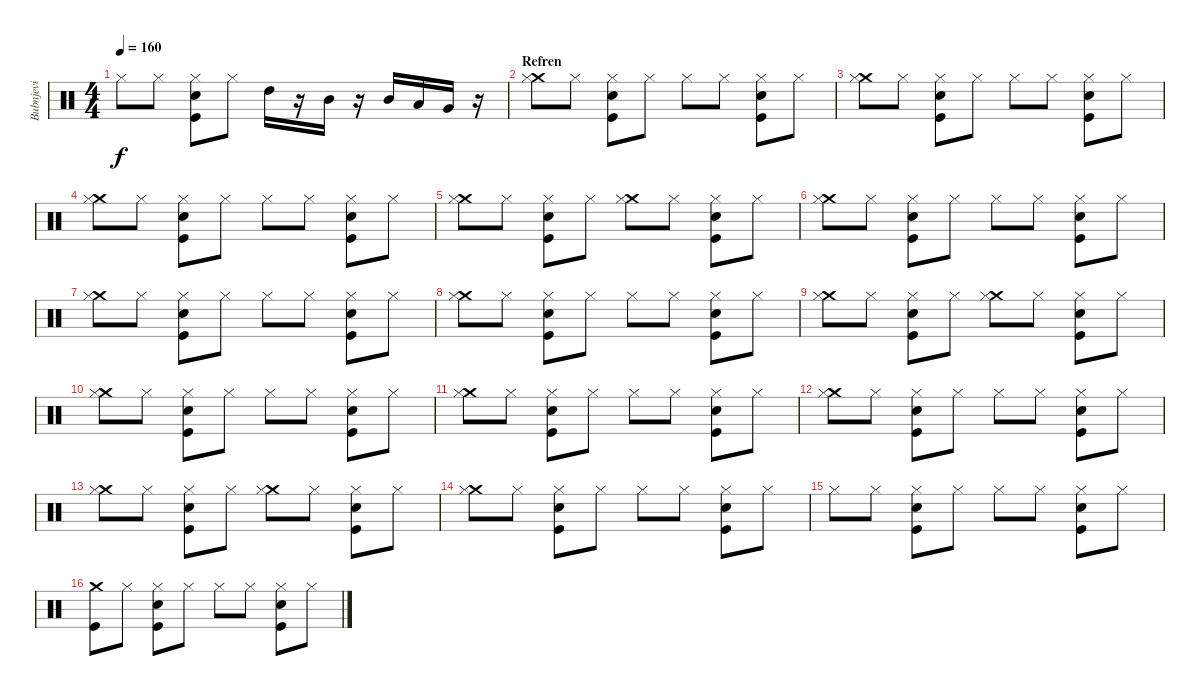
\track ("Bubnjevi" "Bubnjevi") {instrument percussion}
\staff {score}
\articulation defaults
\ts (4 4)
\tempo 160
\clef neutral
\ks c "Hi-Hat (closed)".8{dy f} "Hi-Hat (closed)".8
("Snare (hit) 2" "Hi-Hat (closed)" "Kick (hit)").8 "Hi-Hat (closed)".8 "High Tom (hit)".16 r.16 "Mid Tom (hit)".16 r.16 "Mid Tom (hit)".16 "Low Tom (hit)".16 "Very Low Tom (hit)".16 r.16 |
\section ("" "Refren")
("Crash medium (hit)" "Hi-Hat (closed)").8 "Hi-Hat (closed)".8 ("Snare (hit) 2" "Hi-Hat (closed)" "Kick (hit)").8 "Hi-Hat (closed)".8 "Hi-Hat (closed)".8 "Hi-Hat (closed)".8 ("Snare (hit) 2" "Hi-Hat (closed)" "Kick (hit)").8 "Hi-Hat (closed)".8 |
("Crash medium (hit)" "Hi-Hat (closed)").8 "Hi-Hat (closed)".8 ("Snare (hit) 2" "Hi-Hat (closed)" "Kick (hit)").8 "Hi-Hat (closed)".8 "Hi-Hat (closed)".8 "Hi-Hat (closed)".8 ("Snare (hit) 2" "Hi-Hat (closed)" "Kick (hit)").8 "Hi-Hat (closed)".8 |
("Crash medium (hit)" "Hi-Hat (closed)").8 "Hi-Hat (closed)".8 ("Snare (hit) 2" "Hi-Hat (closed)" "Kick (hit)").8 "Hi-Hat (closed)".8 "Hi-Hat (closed)".8 "Hi-Hat (closed)".8 ("Snare (hit) 2" "Hi-Hat (closed)" "Kick (hit)").8 "Hi-Hat (closed)".8 |
("Crash medium (hit)" "Hi-Hat (closed)").8 "Hi-Hat (closed)".8 ("Snare (hit) 2" "Hi-Hat (closed)" "Kick (hit)").8 "Hi-Hat (closed)".8 ("Crash medium (hit)" "Hi-Hat (closed)").8 "Hi-Hat (closed)".8 ("Snare (hit) 2" "Hi-Hat (closed)" "Kick (hit)").8 "Hi-Hat (closed)".8 |
("Crash medium (hit)" "Hi-Hat (closed)").8 "Hi-Hat (closed)".8 ("Snare (hit) 2" "Hi-Hat (closed)" "Kick (hit)").8 "Hi-Hat (closed)".8 "Hi-Hat (closed)".8 "Hi-Hat (closed)".8 ("Snare (hit) 2" "Hi-Hat (closed)" "Kick (hit)").8 "Hi-Hat (closed)".8 |
("Crash medium (hit)" "Hi-Hat (closed)").8 "Hi-Hat (closed)".8 ("Snare (hit) 2" "Hi-Hat (closed)" "Kick (hit)").8 "Hi-Hat (closed)".8 "Hi-Hat (closed)".8 "Hi-Hat (closed)".8 ("Snare (hit) 2" "Hi-Hat (closed)" "Kick (hit)").8 "Hi-Hat (closed)".8 |
("Crash medium (hit)" "Hi-Hat (closed)").8 "Hi-Hat (closed)".8 ("Snare (hit) 2" "Hi-Hat (closed)" "Kick (hit)").8 "Hi-Hat (closed)".8 "Hi-Hat (closed)".8 "Hi-Hat (closed)".8 ("Snare (hit) 2" "Hi-Hat (closed)" "Kick (hit)").8 "Hi-Hat (closed)".8 |
("Crash medium (hit)" "Hi-Hat (closed)").8 "Hi-Hat (closed)".8 ("Snare (hit) 2" "Hi-Hat (closed)" "Kick (hit)").8 "Hi-Hat (closed)".8 ("Crash medium (hit)" "Hi-Hat (closed)").8 "Hi-Hat (closed)".8 ("Snare (hit) 2" "Hi-Hat (closed)" "Kick (hit)").8 "Hi-Hat (closed)".8 |
("Crash medium (hit)" "Hi-Hat (closed)").8 "Hi-Hat (closed)".8 ("Snare (hit) 2" "Hi-Hat (closed)" "Kick (hit)").8 "Hi-Hat (closed)".8 "Hi-Hat (closed)".8 "Hi-Hat (closed)".8 ("Snare (hit) 2" "Hi-Hat (closed)" "Kick (hit)").8 "Hi-Hat (closed)".8 |
("Crash medium (hit)" "Hi-Hat (closed)").8 "Hi-Hat (closed)".8 ("Snare (hit) 2" "Hi-Hat (closed)" "Kick (hit)").8 "Hi-Hat (closed)".8 "Hi-Hat (closed)".8 "Hi-Hat (closed)".8 ("Snare (hit) 2" "Hi-Hat (closed)" "Kick (hit)").8 "Hi-Hat (closed)".8 |
("Crash medium (hit)" "Hi-Hat (closed)").8 "Hi-Hat (closed)".8 ("Snare (hit) 2" "Hi-Hat (closed)" "Kick (hit)").8 "Hi-Hat (closed)".8 "Hi-Hat (closed)".8 "Hi-Hat (closed)".8 ("Snare (hit) 2" "Hi-Hat (closed)" "Kick (hit)").8 "Hi-Hat (closed)".8 |
("Crash medium (hit)" "Hi-Hat (closed)").8 "Hi-Hat (closed)".8 ("Snare (hit) 2" "Hi-Hat (closed)" "Kick (hit)").8 "Hi-Hat (closed)".8 ("Crash medium (hit)" "Hi-Hat (closed)").8 "Hi-Hat (closed)".8 ("Snare (hit) 2" "Hi-Hat (closed)" "Kick (hit)").8 "Hi-Hat (closed)".8 |
("Crash medium (hit)" "Hi-Hat (closed)").8 "Hi-Hat (closed)".8 ("Snare (hit) 2" "Hi-Hat (closed)" "Kick (hit)").8 "Hi-Hat (closed)".8 "Hi-Hat (closed)".8 "Hi-Hat (closed)".8 ("Snare (hit) 2" "Hi-Hat (closed)" "Kick (hit)").8 "Hi-Hat (closed)".8 |
"Hi-Hat (closed)".8 "Hi-Hat (closed)".8 ("Snare (hit) 2" "Hi-Hat (closed)" "Kick (hit)").8 "Hi-Hat (closed)".8 "Hi-Hat (closed)".8 "Hi-Hat (closed)".8 ("Snare (hit) 2" "Hi-Hat (closed)" "Kick (hit)").8 "Hi-Hat (closed)".8 |
("Crash medium (hit)" "Kick (hit)").8 "Hi-Hat (closed)".8 ("Snare (hit) 2" "Hi-Hat (closed)" "Kick (hit)").8 "Hi-Hat (closed)".8 "Hi-Hat (closed)".8 "Hi-Hat (closed)".8 ("Snare (hit) 2" "Hi-Hat (closed)" "Kick (hit)").8 "Hi-Hat (closed)".8
